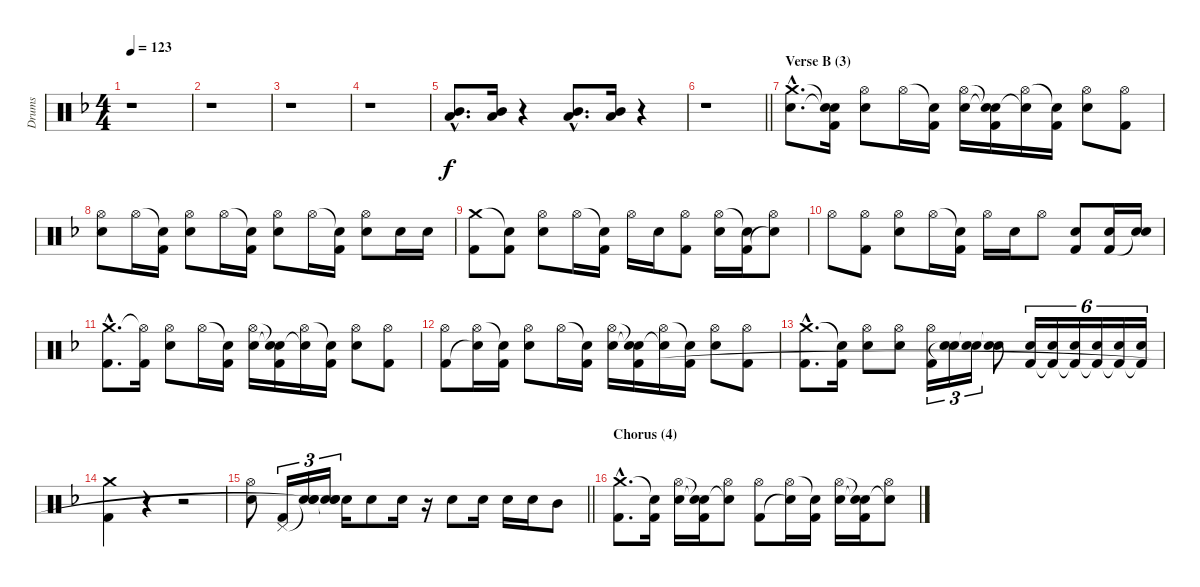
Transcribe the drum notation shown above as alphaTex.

\track ("Drums" "Drums") {instrument percussion}
\staff {score}
\articulation defaults
\ts (4 4)
\tempo 123
\clef neutral
\ks dminor
r.1{dy f} |
r.1 |
r.1 |
r.1 |
("Mid Tom (hit)"{hac} "Low Floor Tom (hit)"{hac}).8{d} ("Mid Tom (hit)" "Low Floor Tom (hit)").16 r.4 ("Mid Tom (hit)"{hac} "Low Floor Tom (hit)"{hac}).8{d} ("Mid Tom (hit)" "Low Floor Tom (hit)").16 r.4 |
\barLineRight lightlight
r.1 |
\section ("" "Verse B (3)")
("Crash medium (hit)"{hac} "Electric Snare (hit)"{hac}).8{d} ("Snare (hit)"{t} "Snare (hit)"{t} "Kick (hit) 2").16 ("Hi-Hat (open)" "Electric Snare (hit)").8 "Hi-Hat (open)".16 ("Snare (hit)"{t} "Kick (hit) 2").16 ("Hi-Hat (open)" "Electric Snare (hit)").16 ("Snare (hit)"{t} "Snare (hit)"{t} "Kick (hit) 2").16 ("Hi-Hat (open)" "Snare (hit)"{t}).16 ("Snare (hit)"{t} "Kick (hit) 2").16 ("Hi-Hat (open)" "Electric Snare (hit)").8 ("Hi-Hat (open)" "Kick (hit) 2").8 |
("Hi-Hat (open)" "Electric Snare (hit)").8 "Hi-Hat (open)".16 ("Snare (hit)"{t} "Kick (hit) 2").16 ("Hi-Hat (open)" "Electric Snare (hit)").8 "Hi-Hat (open)".16 ("Snare (hit)"{t} "Kick (hit) 2").16 ("Hi-Hat (open)" "Electric Snare (hit)").8 "Hi-Hat (open)".16 ("Snare (hit)"{t} "Kick (hit) 2").16 ("Hi-Hat (open)" "Electric Snare (hit)").8 "Electric Snare (hit)".16 "Electric Snare (hit)".16 |
("Crash medium (hit)" "Kick (hit) 2").8 ("Snare (hit)"{t} "Kick (hit) 2").8 ("Hi-Hat (open)" "Electric Snare (hit)").8 "Hi-Hat (open)".16 ("Snare (hit)"{t} "Kick (hit) 2").16 "Hi-Hat (open)".16 "Electric Snare (hit)".16 ("Hi-Hat (open)" "Kick (hit) 2").8 ("Hi-Hat (open)" "Electric Snare (hit)").16 ("Snare (hit)"{t} "Kick (hit) 2").16 ("Hi-Hat (open)" "Snare (hit)"{t}).8 |
"Hi-Hat (open)".8 ("Hi-Hat (open)" "Kick (hit) 2").8 ("Hi-Hat (open)" "Electric Snare (hit)").8 "Hi-Hat (open)".16 ("Snare (hit)"{t} "Kick (hit) 2").16 "Hi-Hat (open)".16 "Electric Snare (hit)".16 "Hi-Hat (open)".8 ("Electric Snare (hit)" "Kick (hit) 2").8 ("Electric Snare (hit)" "Kick (hit) 2").16 ("Electric Snare (hit)" "Snare (hit)"{t}).16 |
("Crash medium (hit)"{hac} "Kick (hit) 2"{hac}).8{d} ("Hi-Hat (open)"{t} "Kick (hit) 2").16 ("Hi-Hat (open)" "Electric Snare (hit)").8 "Hi-Hat (open)".16 ("Snare (hit)"{t} "Kick (hit) 2").16 ("Hi-Hat (open)" "Electric Snare (hit)").16 ("Snare (hit)"{t} "Snare (hit)"{t} "Kick (hit) 2").16 ("Hi-Hat (open)" "Snare (hit)"{t}).16 ("Snare (hit)"{t} "Kick (hit) 2").16 ("Hi-Hat (open)" "Electric Snare (hit)").8 ("Hi-Hat (open)" "Kick (hit) 2").8 |
("Hi-Hat (open)" "Kick (hit) 2").8 ("Hi-Hat (open)" "Snare (hit)"{t}).16 ("Snare (hit)"{t} "Kick (hit) 2").16 ("Hi-Hat (open)" "Electric Snare (hit)").8 "Hi-Hat (open)".16 ("Snare (hit)"{t} "Kick (hit) 2").16 ("Hi-Hat (open)" "Electric Snare (hit)").16 ("Snare (hit)"{t} "Snare (hit)"{t} "Kick (hit) 2").16 ("Hi-Hat (open)" "Snare (hit)"{t}).16 ("Snare (hit)"{t} "Kick (hit) 2").16 ("Hi-Hat (open)" "Electric Snare (hit)").8 ("Hi-Hat (open)" "Kick (hit) 2").8 |
("Crash medium (hit)"{hac} "Kick (hit) 2"{hac}).8{d} ("Snare (hit)"{t} "Kick (hit) 2").16 ("Hi-Hat (open)" "Electric Snare (hit)").8 ("Hi-Hat (open)" "Electric Snare (hit)").8 ("Hi-Hat (open)" "Kick (hit) 2").16{tu (3 2)} ("Electric Snare (hit)" "Snare (hit)"{t}).16{tu (3 2)} ("Electric Snare (hit)" "Snare (hit)"{t}).16{tu (3 2)} ("Electric Snare (hit)" "Snare (hit)"{t}).8 ("Electric Snare (hit)" "Kick (hit) 2").16{tu (6 4)} ("Electric Snare (hit)" "Kick (hit) 2"{t}).16{tu (6 4)} ("Electric Snare (hit)" "Kick (hit) 2"{t}).16{tu (6 4)} ("Electric Snare (hit)" "Kick (hit) 2"{t}).16{tu (6 4)} ("Electric Snare (hit)" "Kick (hit) 2"{t}).16{tu (6 4)} ("Electric Snare (hit)" "Kick (hit) 2"{t}).16{tu (6 4)} |
("Crash medium (hit)" "Kick (hit) 2").4 r.4 r.2 |
\barLineRight lightlight
("Hi-Hat (open)" "Electric Snare (hit)").8 ("Pedal Hi-Hat (hit)" "Kick (hit) 2").16{tu (3 2)} ("Snare (hit)"{t} "Electric Snare (hit)" "Snare (hit)"{t}).16{tu (3 2)} ("Snare (hit)"{t} "Electric Snare (hit)" "Snare (hit)"{t}).16{tu (3 2)} "Electric Snare (hit)".16 "Electric Snare (hit)".8 "Electric Snare (hit)".16 r.16 "Electric Snare (hit)".8 "Electric Snare (hit)".16 "Electric Snare (hit)".16 "Electric Snare (hit)".16 "Mid Tom (hit)".8 |
\section ("" "Chorus (4)")
("Crash medium (hit)"{hac} "Kick (hit) 2"{hac}).8{d} ("Snare (hit)"{t} "Kick (hit) 2").16 ("Hi-Hat (open)" "Electric Snare (hit)").16 ("Snare (hit)"{t} "Snare (hit)"{t} "Kick (hit) 2").16 ("Hi-Hat (open)" "Snare (hit)"{t}).8 ("Hi-Hat (open)" "Kick (hit) 2").8 ("Hi-Hat (open)" "Snare (hit)"{t}).16 ("Snare (hit)"{t} "Kick (hit) 2").16 ("Hi-Hat (open)" "Electric Snare (hit)").16 ("Snare (hit)"{t} "Snare (hit)"{t} "Kick (hit) 2").16 ("Hi-Hat (open)" "Snare (hit)"{t}).8
